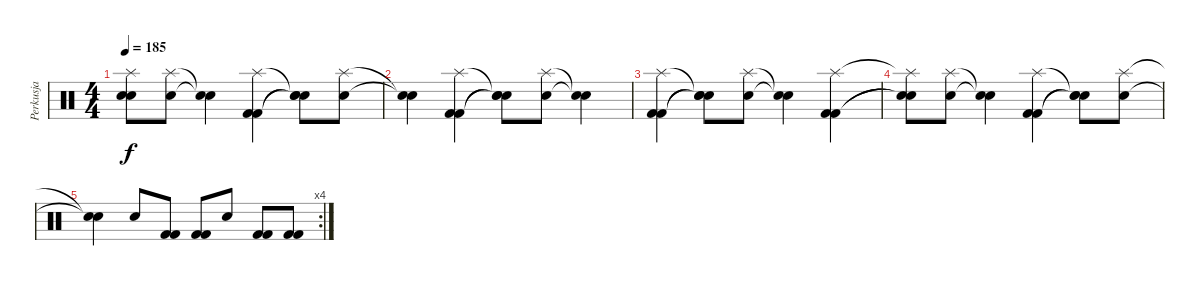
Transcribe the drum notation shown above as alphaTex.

\track ("Perkusja" "Perkusja") {instrument percussion}
\staff {score}
\articulation defaults
\ts (4 4)
\tempo 185
\clef neutral
\ks c
("Splash (hit)"{t} "Snare (hit)"{t} "Snare (hit)"{t}).8{dy f} ("Splash (hit)" "Snare (hit) 2").8 ("Snare (hit)"{t} "Snare (hit)"{t}).4 ("Splash (hit)" "Kick (hit) 2" "Kick (hit) 2").4 ("Snare (hit)"{t} "Snare (hit)"{t} "Snare (hit)"{t}).8 ("Splash (hit)" "Snare (hit) 2").8 |
("Snare (hit)"{t} "Snare (hit)"{t}).4 ("Splash (hit)" "Kick (hit) 2" "Kick (hit) 2").4 ("Snare (hit)"{t} "Snare (hit)"{t} "Snare (hit)"{t}).8 ("Splash (hit)" "Snare (hit) 2").8 ("Snare (hit)"{t} "Snare (hit)"{t}).4 |
("Splash (hit)" "Kick (hit) 2" "Kick (hit) 2").4 ("Snare (hit)"{t} "Snare (hit)"{t} "Snare (hit)"{t}).8 ("Splash (hit)" "Snare (hit) 2").8 ("Snare (hit)"{t} "Snare (hit)"{t}).4 ("Splash (hit)" "Kick (hit) 2" "Kick (hit) 2").4 |
("Splash (hit)"{t} "Snare (hit)"{t} "Snare (hit)"{t}).8 ("Splash (hit)" "Snare (hit) 2").8 ("Snare (hit)"{t} "Snare (hit)"{t}).4 ("Splash (hit)" "Kick (hit) 2" "Kick (hit) 2").4 ("Snare (hit)"{t} "Snare (hit)"{t} "Snare (hit)"{t}).8 ("Splash (hit)" "Snare (hit) 2").8 |
\rc 4
("Snare (hit)"{t} "Snare (hit)"{t}).4 "Snare (hit) 2".8 ("Kick (hit) 2" "Kick (hit) 2").8 ("Kick (hit) 2" "Kick (hit) 2").8 "Snare (hit) 2".8 ("Kick (hit) 2" "Kick (hit) 2").8 ("Kick (hit) 2" "Kick (hit) 2").8
